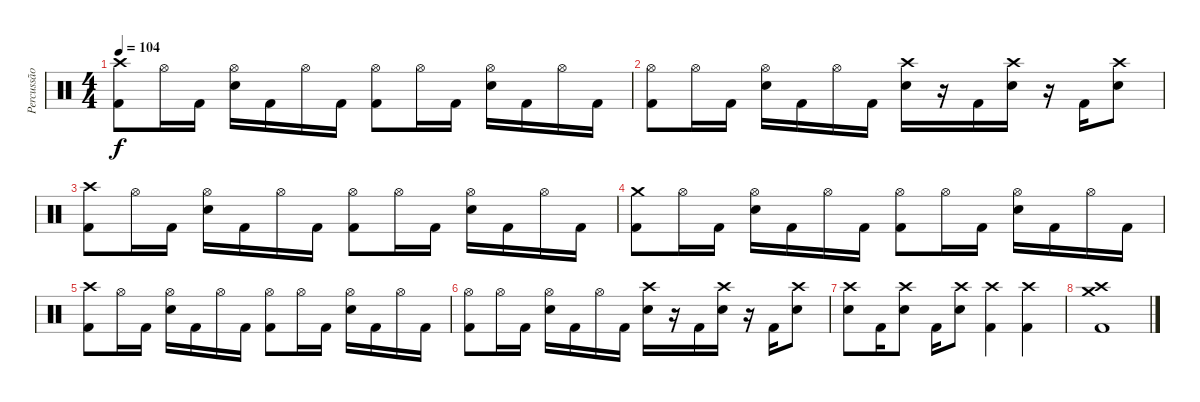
\track ("Percussão" "Percussão") {instrument percussion}
\staff {score}
\articulation defaults
\ts (4 4)
\tempo 104
\clef neutral
\ks c
("Crash high (hit)" "Kick (hit) 2").8{dy f} "Hi-Hat (open)".16 "Kick (hit) 2".16 ("Hi-Hat (open)" "Electric Snare (hit)").16 "Kick (hit) 2".16 "Hi-Hat (open)".16 "Kick (hit) 2".16 ("Hi-Hat (open)" "Kick (hit) 2").8 "Hi-Hat (open)".16 "Kick (hit) 2".16 ("Hi-Hat (open)" "Electric Snare (hit)").16 "Kick (hit) 2".16 "Hi-Hat (open)".16 "Kick (hit) 2".16 |
("Hi-Hat (open)" "Kick (hit) 2").8 "Hi-Hat (open)".16 "Kick (hit) 2".16 ("Hi-Hat (open)" "Electric Snare (hit)").16 "Kick (hit) 2".16 "Hi-Hat (open)".16 "Kick (hit) 2".16 ("Crash high (hit)" "Electric Snare (hit)").16 r.16 "Kick (hit) 2".16 ("Crash high (hit)" "Electric Snare (hit)").16 r.16 "Kick (hit) 2".16 ("Crash high (hit)" "Electric Snare (hit)").8 |
("Crash high (hit)" "Kick (hit) 2").8 "Hi-Hat (open)".16 "Kick (hit) 2".16 ("Hi-Hat (open)" "Electric Snare (hit)").16 "Kick (hit) 2".16 "Hi-Hat (open)".16 "Kick (hit) 2".16 ("Hi-Hat (open)" "Kick (hit) 2").8 "Hi-Hat (open)".16 "Kick (hit) 2".16 ("Hi-Hat (open)" "Electric Snare (hit)").16 "Kick (hit) 2".16 "Hi-Hat (open)".16 "Kick (hit) 2".16 |
("Crash medium (hit)" "Kick (hit) 2").8 "Hi-Hat (open)".16 "Kick (hit) 2".16 ("Hi-Hat (open)" "Electric Snare (hit)").16 "Kick (hit) 2".16 "Hi-Hat (open)".16 "Kick (hit) 2".16 ("Hi-Hat (open)" "Kick (hit) 2").8 "Hi-Hat (open)".16 "Kick (hit) 2".16 ("Hi-Hat (open)" "Electric Snare (hit)").16 "Kick (hit) 2".16 "Hi-Hat (open)".16 "Kick (hit) 2".16 |
("Crash high (hit)" "Kick (hit) 2").8 "Hi-Hat (open)".16 "Kick (hit) 2".16 ("Hi-Hat (open)" "Electric Snare (hit)").16 "Kick (hit) 2".16 "Hi-Hat (open)".16 "Kick (hit) 2".16 ("Hi-Hat (open)" "Kick (hit) 2").8 "Hi-Hat (open)".16 "Kick (hit) 2".16 ("Hi-Hat (open)" "Electric Snare (hit)").16 "Kick (hit) 2".16 "Hi-Hat (open)".16 "Kick (hit) 2".16 |
("Hi-Hat (open)" "Kick (hit) 2").8 "Hi-Hat (open)".16 "Kick (hit) 2".16 ("Hi-Hat (open)" "Electric Snare (hit)").16 "Kick (hit) 2".16 "Hi-Hat (open)".16 "Kick (hit) 2".16 ("Crash high (hit)" "Electric Snare (hit)").16 r.16 "Kick (hit) 2".16 ("Crash high (hit)" "Electric Snare (hit)").16 r.16 "Kick (hit) 2".16 ("Crash high (hit)" "Electric Snare (hit)").8 |
("Crash high (hit)" "Electric Snare (hit)").8 "Kick (hit) 2".16 ("Crash high (hit)" "Electric Snare (hit)").8 "Kick (hit) 2".16 ("Crash high (hit)" "Electric Snare (hit)").8 ("Crash high (hit)" "Kick (hit) 2").4 ("Crash high (hit)" "Kick (hit) 2").4 |
("Crash medium (hit)" "Crash high (hit)" "Kick (hit) 2").1
